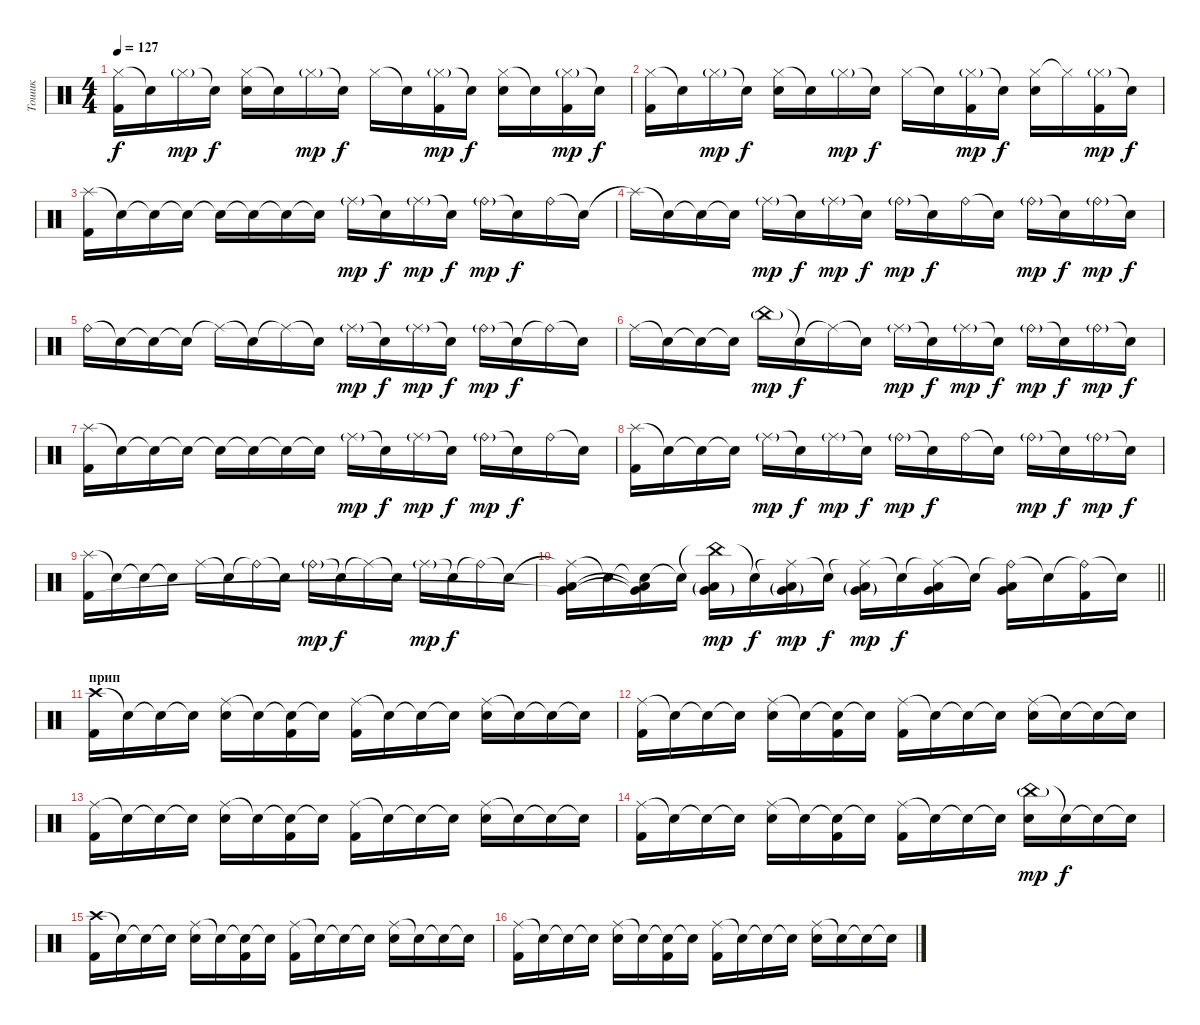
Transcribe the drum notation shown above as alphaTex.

\track ("Тошик" "Тошик") {instrument percussion}
\staff {score}
\articulation defaults
\ts (4 4)
\tempo 127
\clef neutral
\ks c
("Hi-Hat (closed)" "Kick (hit) 2").16{dy f} "Snare (hit)"{t}.16 "Hi-Hat (closed)"{g}.16{dy mp} "Snare (hit)"{t}.16{dy f} ("Hi-Hat (closed)" "Snare (hit) 2").16 "Snare (hit)"{t}.16 "Hi-Hat (closed)"{g}.16{dy mp} "Snare (hit)"{t}.16{dy f} "Hi-Hat (closed)".16 "Snare (hit)"{t}.16 ("Hi-Hat (closed)"{g} "Kick (hit) 2").16{dy mp} "Snare (hit)"{t}.16{dy f} ("Hi-Hat (closed)" "Snare (hit) 2").16 "Snare (hit)"{t}.16 ("Hi-Hat (closed)"{g} "Kick (hit) 2").16{dy mp} "Snare (hit)"{t}.16{dy f} |
("Hi-Hat (closed)" "Kick (hit) 2").16 "Snare (hit)"{t}.16 "Hi-Hat (closed)"{g}.16{dy mp} "Snare (hit)"{t}.16{dy f} ("Hi-Hat (closed)" "Snare (hit) 2").16 "Snare (hit)"{t}.16 "Hi-Hat (closed)"{g}.16{dy mp} "Snare (hit)"{t}.16{dy f} "Hi-Hat (closed)".16 "Snare (hit)"{t}.16 ("Hi-Hat (closed)"{g} "Kick (hit) 2").16{dy mp} "Snare (hit)"{t}.16{dy f} ("Hi-Hat (closed)" "Snare (hit) 2").16 "Hi-Hat (closed)"{t}.16 ("Hi-Hat (closed)"{g} "Kick (hit) 2").16{dy mp} "Snare (hit)"{t}.16{dy f} |
("Splash (hit)" "Kick (hit) 2").16 "Snare (hit)"{t}.16 "Snare (hit)"{t}.16 "Snare (hit)"{t}.16 "Snare (hit)"{t}.16 "Snare (hit)"{t}.16 "Snare (hit)"{t}.16 "Snare (hit)"{t}.16 "Ride (middle)"{g}.16{dy mp} "Snare (hit)"{t}.16{dy f} "Ride (middle)"{g}.16{dy mp} "Snare (hit)"{t}.16{dy f} "Ride (bell)"{g}.16{dy mp} "Snare (hit)"{t}.16{dy f} "Ride (bell)".16 "Snare (hit)"{t}.16 |
"Splash (hit)"{t}.16 "Snare (hit)"{t}.16 "Snare (hit)"{t}.16 "Snare (hit)"{t}.16 "Ride (middle)"{g}.16{dy mp} "Snare (hit)"{t}.16{dy f} "Ride (middle)"{g}.16{dy mp} "Snare (hit)"{t}.16{dy f} "Ride (bell)"{g}.16{dy mp} "Snare (hit)"{t}.16{dy f} "Ride (bell)".16 "Snare (hit)"{t}.16 "Ride (bell)"{g}.16{dy mp} "Snare (hit)"{t}.16{dy f} "Ride (bell)"{g}.16{dy mp} "Snare (hit)"{t}.16{dy f} |
"Ride (bell)".16 "Snare (hit)"{t}.16 "Snare (hit)"{t}.16 "Snare (hit)"{t}.16 "Ride (middle)"{t}.16 "Snare (hit)"{t}.16 "Ride (middle)"{t}.16 "Snare (hit)"{t}.16 "Ride (middle)"{g}.16{dy mp} "Snare (hit)"{t}.16{dy f} "Ride (middle)"{g}.16{dy mp} "Snare (hit)"{t}.16{dy f} "Ride (bell)"{g}.16{dy mp} "Snare (hit)"{t}.16{dy f} "Ride (bell)"{t}.16 "Snare (hit)"{t}.16 |
"Ride (middle)".16 "Snare (hit)"{t}.16 "Snare (hit)"{t}.16 "Snare (hit)"{t}.16 "China (hit)"{g}.16{dy mp} "Snare (hit)"{t}.16{dy f} "Ride (middle)"{t}.16 "Snare (hit)"{t}.16 "Ride (middle)"{g}.16{dy mp} "Snare (hit)"{t}.16{dy f} "Ride (middle)"{g}.16{dy mp} "Snare (hit)"{t}.16{dy f} "Ride (bell)"{g}.16{dy mp} "Snare (hit)"{t}.16{dy f} "Ride (bell)"{g}.16{dy mp} "Snare (hit)"{t}.16{dy f} |
("Splash (hit)" "Kick (hit) 2").16 "Snare (hit)"{t}.16 "Snare (hit)"{t}.16 "Snare (hit)"{t}.16 "Snare (hit)"{t}.16 "Snare (hit)"{t}.16 "Snare (hit)"{t}.16 "Snare (hit)"{t}.16 "Ride (middle)"{g}.16{dy mp} "Snare (hit)"{t}.16{dy f} "Ride (middle)"{g}.16{dy mp} "Snare (hit)"{t}.16{dy f} "Ride (bell)"{g}.16{dy mp} "Snare (hit)"{t}.16{dy f} "Ride (bell)".16 "Snare (hit)"{t}.16 |
("Splash (hit)" "Kick (hit) 2").16 "Snare (hit)"{t}.16 "Snare (hit)"{t}.16 "Snare (hit)"{t}.16 "Ride (middle)"{g}.16{dy mp} "Snare (hit)"{t}.16{dy f} "Ride (middle)"{g}.16{dy mp} "Snare (hit)"{t}.16{dy f} "Ride (bell)"{g}.16{dy mp} "Snare (hit)"{t}.16{dy f} "Ride (bell)".16 "Snare (hit)"{t}.16 "Ride (bell)"{g}.16{dy mp} "Snare (hit)"{t}.16{dy f} "Ride (bell)"{g}.16{dy mp} "Snare (hit)"{t}.16{dy f} |
("Splash (hit)" "Kick (hit) 2").16 "Snare (hit)"{t}.16 "Snare (hit)"{t}.16 "Snare (hit)"{t}.16 "Ride (middle)".16 "Snare (hit)"{t}.16 "Ride (bell)"{t}.16 "Snare (hit)"{t}.16 "Ride (bell)"{g}.16{dy mp} "Snare (hit)"{t}.16{dy f} "Ride (middle)"{t}.16 "Snare (hit)"{t}.16 "Ride (middle)"{g}.16{dy mp} "Snare (hit)"{t}.16{dy f} "Ride (bell)"{t}.16 "Snare (hit)"{t}.16 |
\barLineRight lightlight
("Ride (middle)"{t} "Very Low Tom (hit)"{t} "Low Tom (hit)").16 "Snare (hit)"{t}.16 ("Snare (hit)"{t} "Very Low Tom (hit)"{t} "Low Tom (hit)"{t}).16 "Snare (hit)"{t}.16 ("China (hit)"{t} "Very Low Tom (hit)"{g} "Low Tom (hit)"{g}).16{dy mp} "Snare (hit)"{t}.16{dy f} ("Ride (middle)"{t} "Low Tom (hit)"{g} "Very Low Tom (hit)"{g}).16{dy mp} "Snare (hit)"{t}.16{dy f} ("Ride (middle)"{t} "Very Low Tom (hit)"{g} "Low Tom (hit)"{g}).16{dy mp} "Snare (hit)"{t}.16{dy f} ("Ride (middle)"{t} "Low Tom (hit)" "Very Low Tom (hit)").16 "Snare (hit)"{t}.16 ("Ride (bell)"{t} "Low Tom (hit)" "Very Low Tom (hit)").16 "Snare (hit)"{t}.16 ("Ride (bell)"{t} "Kick (hit) 2").16 "Snare (hit)"{t}.16 |
\section ("" "прип")
("Crash high (hit)" "Kick (hit) 2").16 "Snare (hit)"{t}.16 "Snare (hit)"{t}.16 "Snare (hit)"{t}.16 ("Ride (middle)" "Snare (hit) 2").16 "Snare (hit)"{t}.16 ("Snare (hit)"{t} "Kick (hit) 2").16 "Snare (hit)"{t}.16 ("Ride (middle)" "Kick (hit) 2").16 "Snare (hit)"{t}.16 "Snare (hit)"{t}.16 "Snare (hit)"{t}.16 ("Ride (middle)" "Snare (hit) 2").16 "Snare (hit)"{t}.16 "Snare (hit)"{t}.16 "Snare (hit)"{t}.16 |
("Ride (middle)" "Kick (hit) 2").16 "Snare (hit)"{t}.16 "Snare (hit)"{t}.16 "Snare (hit)"{t}.16 ("Ride (middle)" "Snare (hit) 2").16 "Snare (hit)"{t}.16 ("Snare (hit)"{t} "Kick (hit) 2").16 "Snare (hit)"{t}.16 ("Ride (middle)" "Kick (hit) 2").16 "Snare (hit)"{t}.16 "Snare (hit)"{t}.16 "Snare (hit)"{t}.16 ("Ride (middle)" "Snare (hit) 2").16 "Snare (hit)"{t}.16 "Snare (hit)"{t}.16 "Snare (hit)"{t}.16 |
("Ride (middle)" "Kick (hit) 2").16 "Snare (hit)"{t}.16 "Snare (hit)"{t}.16 "Snare (hit)"{t}.16 ("Ride (middle)" "Snare (hit) 2").16 "Snare (hit)"{t}.16 ("Snare (hit)"{t} "Kick (hit) 2").16 "Snare (hit)"{t}.16 ("Ride (middle)" "Kick (hit) 2").16 "Snare (hit)"{t}.16 "Snare (hit)"{t}.16 "Snare (hit)"{t}.16 ("Ride (middle)" "Snare (hit) 2").16 "Snare (hit)"{t}.16 "Snare (hit)"{t}.16 "Snare (hit)"{t}.16 |
("Ride (middle)" "Kick (hit) 2").16 "Snare (hit)"{t}.16 "Snare (hit)"{t}.16 "Snare (hit)"{t}.16 ("Ride (middle)" "Snare (hit) 2").16 "Snare (hit)"{t}.16 ("Snare (hit)"{t} "Kick (hit) 2").16 "Snare (hit)"{t}.16 ("Ride (middle)" "Kick (hit) 2").16 "Snare (hit)"{t}.16 "Snare (hit)"{t}.16 "Snare (hit)"{t}.16 ("China (hit)"{g} "Snare (hit) 2").16{dy mp} "Snare (hit)"{t}.16{dy f} "Snare (hit)"{t}.16 "Snare (hit)"{t}.16 |
("Crash high (hit)" "Kick (hit) 2").16 "Snare (hit)"{t}.16 "Snare (hit)"{t}.16 "Snare (hit)"{t}.16 ("Ride (middle)" "Snare (hit) 2").16 "Snare (hit)"{t}.16 ("Snare (hit)"{t} "Kick (hit) 2").16 "Snare (hit)"{t}.16 ("Ride (middle)" "Kick (hit) 2").16 "Snare (hit)"{t}.16 "Snare (hit)"{t}.16 "Snare (hit)"{t}.16 ("Ride (middle)" "Snare (hit) 2").16 "Snare (hit)"{t}.16 "Snare (hit)"{t}.16 "Snare (hit)"{t}.16 |
("Ride (middle)" "Kick (hit) 2").16 "Snare (hit)"{t}.16 "Snare (hit)"{t}.16 "Snare (hit)"{t}.16 ("Ride (middle)" "Snare (hit) 2").16 "Snare (hit)"{t}.16 ("Snare (hit)"{t} "Kick (hit) 2").16 "Snare (hit)"{t}.16 ("Ride (middle)" "Kick (hit) 2").16 "Snare (hit)"{t}.16 "Snare (hit)"{t}.16 "Snare (hit)"{t}.16 ("Ride (middle)" "Snare (hit) 2").16 "Snare (hit)"{t}.16 "Snare (hit)"{t}.16 "Snare (hit)"{t}.16
